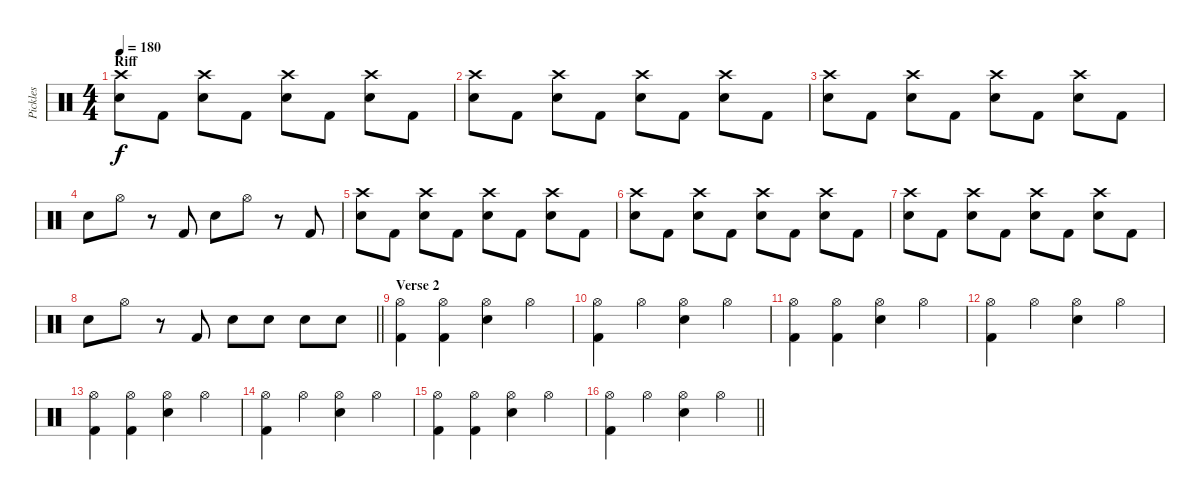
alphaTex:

\track ("Pickles" "Pickles") {instrument percussion}
\staff {score}
\articulation defaults
\ts (4 4)
\section ("" "Riff")
\tempo 180
\clef neutral
\ks c
("Crash high (hit)" "Snare (hit) 2").8{dy f} "Kick (hit) 2".8 ("Crash high (hit)" "Snare (hit) 2").8 "Kick (hit) 2".8 ("Crash high (hit)" "Snare (hit) 2").8 "Kick (hit) 2".8 ("Crash high (hit)" "Snare (hit) 2").8 "Kick (hit) 2".8 |
("Crash high (hit)" "Snare (hit) 2").8 "Kick (hit) 2".8 ("Crash high (hit)" "Snare (hit) 2").8 "Kick (hit) 2".8 ("Crash high (hit)" "Snare (hit) 2").8 "Kick (hit) 2".8 ("Crash high (hit)" "Snare (hit) 2").8 "Kick (hit) 2".8 |
("Crash high (hit)" "Snare (hit) 2").8 "Kick (hit) 2".8 ("Crash high (hit)" "Snare (hit) 2").8 "Kick (hit) 2".8 ("Crash high (hit)" "Snare (hit) 2").8 "Kick (hit) 2".8 ("Crash high (hit)" "Snare (hit) 2").8 "Kick (hit) 2".8 |
"Snare (hit) 2".8 "Hi-Hat (open)".8 r.8{volume 0} "Kick (hit) 2".8{volume 16} "Snare (hit) 2".8 "Hi-Hat (open)".8 r.8{volume 0} "Kick (hit) 2".8{volume 16} |
("Crash high (hit)" "Snare (hit) 2").8 "Kick (hit) 2".8 ("Crash high (hit)" "Snare (hit) 2").8 "Kick (hit) 2".8 ("Crash high (hit)" "Snare (hit) 2").8 "Kick (hit) 2".8 ("Crash high (hit)" "Snare (hit) 2").8 "Kick (hit) 2".8 |
("Crash high (hit)" "Snare (hit) 2").8 "Kick (hit) 2".8 ("Crash high (hit)" "Snare (hit) 2").8 "Kick (hit) 2".8 ("Crash high (hit)" "Snare (hit) 2").8 "Kick (hit) 2".8 ("Crash high (hit)" "Snare (hit) 2").8 "Kick (hit) 2".8 |
("Crash high (hit)" "Snare (hit) 2").8 "Kick (hit) 2".8 ("Crash high (hit)" "Snare (hit) 2").8 "Kick (hit) 2".8 ("Crash high (hit)" "Snare (hit) 2").8 "Kick (hit) 2".8 ("Crash high (hit)" "Snare (hit) 2").8 "Kick (hit) 2".8 |
\barLineRight lightlight "Snare (hit) 2".8 "Hi-Hat (open)".8
r.8{volume 0} "Kick (hit) 2".8{volume 16} "Snare (hit) 2".8 "Snare (hit) 2".8 "Snare (hit) 2".8 "Snare (hit) 2".8 |
\section ("" "Verse 2")
("Hi-Hat (open)" "Kick (hit) 2").4 ("Hi-Hat (open)" "Kick (hit) 2").4 ("Hi-Hat (open)" "Snare (hit) 2").4 "Hi-Hat (open)".4 |
("Hi-Hat (open)" "Kick (hit) 2").4 "Hi-Hat (open)".4 ("Hi-Hat (open)" "Snare (hit) 2").4 "Hi-Hat (open)".4 |
("Hi-Hat (open)" "Kick (hit) 2").4 ("Hi-Hat (open)" "Kick (hit) 2").4 ("Hi-Hat (open)" "Snare (hit) 2").4 "Hi-Hat (open)".4 |
("Hi-Hat (open)" "Kick (hit) 2").4 "Hi-Hat (open)".4 ("Hi-Hat (open)" "Snare (hit) 2").4 "Hi-Hat (open)".4 |
("Hi-Hat (open)" "Kick (hit) 2").4 ("Hi-Hat (open)" "Kick (hit) 2").4 ("Hi-Hat (open)" "Snare (hit) 2").4 "Hi-Hat (open)".4 |
("Hi-Hat (open)" "Kick (hit) 2").4 "Hi-Hat (open)".4 ("Hi-Hat (open)" "Snare (hit) 2").4 "Hi-Hat (open)".4 |
("Hi-Hat (open)" "Kick (hit) 2").4 ("Hi-Hat (open)" "Kick (hit) 2").4 ("Hi-Hat (open)" "Snare (hit) 2").4 "Hi-Hat (open)".4 |
\barLineRight lightlight
("Hi-Hat (open)" "Kick (hit) 2").4 "Hi-Hat (open)".4 ("Hi-Hat (open)" "Snare (hit) 2").4 "Hi-Hat (open)".4
